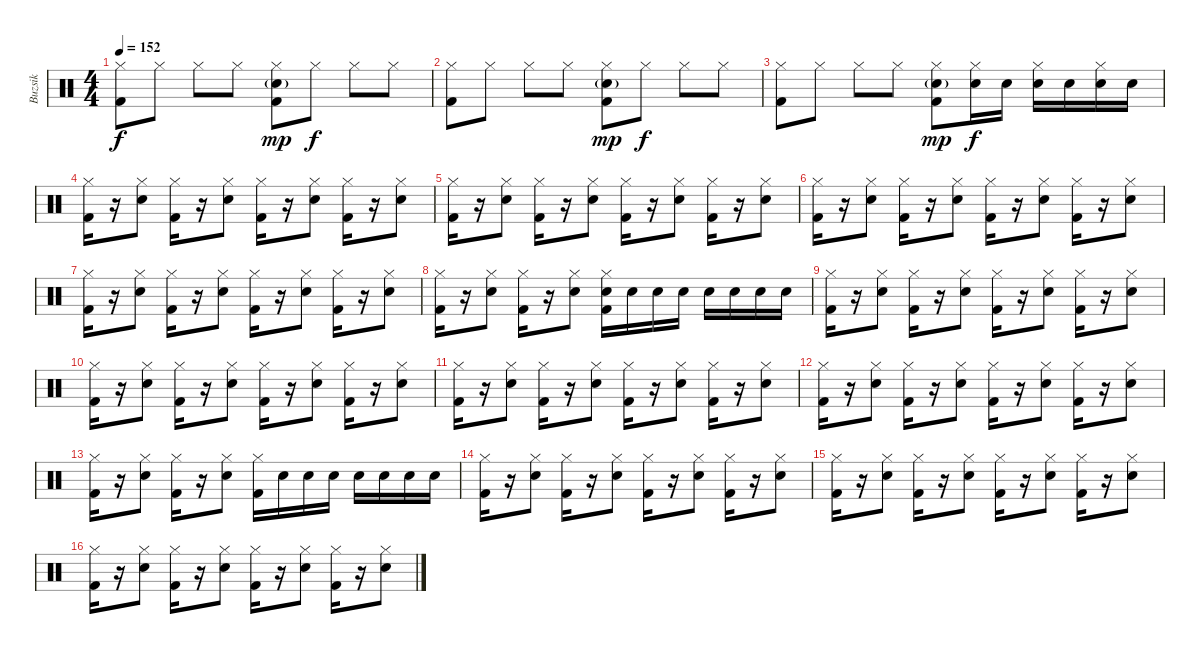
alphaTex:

\track ("Buzsik" "Buzsik") {instrument percussion}
\staff {score}
\articulation defaults
\ts (4 4)
\tempo 152
\clef neutral
\ks c
("Hi-Hat (closed)" "Kick (hit) 2").8{dy f} "Hi-Hat (closed)".8 "Hi-Hat (closed)".8 "Hi-Hat (closed)".8 ("Hi-Hat (closed)" "Snare (hit) 2"{g} "Kick (hit) 2").8{dy mp} "Hi-Hat (closed)".8{dy f} "Hi-Hat (closed)".8 "Hi-Hat (closed)".8 |
("Hi-Hat (closed)" "Kick (hit) 2").8 "Hi-Hat (closed)".8 "Hi-Hat (closed)".8 "Hi-Hat (closed)".8 ("Hi-Hat (closed)" "Snare (hit) 2"{g} "Kick (hit) 2").8{dy mp} "Hi-Hat (closed)".8{dy f} "Hi-Hat (closed)".8 "Hi-Hat (closed)".8 |
("Hi-Hat (closed)" "Kick (hit) 2").8 "Hi-Hat (closed)".8 "Hi-Hat (closed)".8 "Hi-Hat (closed)".8 ("Hi-Hat (closed)" "Snare (hit) 2"{g} "Kick (hit) 2").8{dy mp} ("Hi-Hat (closed)" "Electric Snare (hit)").16{dy f} "Electric Snare (hit)".16 ("Hi-Hat (closed)" "Electric Snare (hit)").16 "Electric Snare (hit)".16 ("Hi-Hat (closed)" "Electric Snare (hit)").16 "Electric Snare (hit)".16 |
("Hi-Hat (closed)" "Kick (hit) 2").16 r.16 ("Hi-Hat (closed)" "Electric Snare (hit)").8 ("Hi-Hat (closed)" "Kick (hit) 2").16 r.16 ("Hi-Hat (closed)" "Electric Snare (hit)").8 ("Hi-Hat (closed)" "Kick (hit) 2").16 r.16 ("Hi-Hat (closed)" "Electric Snare (hit)").8 ("Hi-Hat (closed)" "Kick (hit) 2").16 r.16 ("Hi-Hat (closed)" "Electric Snare (hit)").8 |
("Hi-Hat (closed)" "Kick (hit) 2").16 r.16 ("Hi-Hat (closed)" "Electric Snare (hit)").8 ("Hi-Hat (closed)" "Kick (hit) 2").16 r.16 ("Hi-Hat (closed)" "Electric Snare (hit)").8 ("Hi-Hat (closed)" "Kick (hit) 2").16 r.16 ("Hi-Hat (closed)" "Electric Snare (hit)").8 ("Hi-Hat (closed)" "Kick (hit) 2").16 r.16 ("Hi-Hat (closed)" "Electric Snare (hit)").8 |
("Hi-Hat (closed)" "Kick (hit) 2").16 r.16 ("Hi-Hat (closed)" "Electric Snare (hit)").8 ("Hi-Hat (closed)" "Kick (hit) 2").16 r.16 ("Hi-Hat (closed)" "Electric Snare (hit)").8 ("Hi-Hat (closed)" "Kick (hit) 2").16 r.16 ("Hi-Hat (closed)" "Electric Snare (hit)").8 ("Hi-Hat (closed)" "Kick (hit) 2").16 r.16 ("Hi-Hat (closed)" "Electric Snare (hit)").8 |
("Hi-Hat (closed)" "Kick (hit) 2").16 r.16 ("Hi-Hat (closed)" "Electric Snare (hit)").8 ("Hi-Hat (closed)" "Kick (hit) 2").16 r.16 ("Hi-Hat (closed)" "Electric Snare (hit)").8 ("Hi-Hat (closed)" "Kick (hit) 2").16 r.16 ("Hi-Hat (closed)" "Electric Snare (hit)").8 ("Hi-Hat (closed)" "Kick (hit) 2").16 r.16 ("Hi-Hat (closed)" "Electric Snare (hit)").8 |
("Hi-Hat (closed)" "Kick (hit) 2").16 r.16 ("Hi-Hat (closed)" "Electric Snare (hit)").8 ("Hi-Hat (closed)" "Kick (hit) 2").16 r.16 ("Hi-Hat (closed)" "Electric Snare (hit)").8 ("Hi-Hat (closed)" "Kick (hit) 2" "Electric Snare (hit)").16 "Electric Snare (hit)".16 "Electric Snare (hit)".16 "Electric Snare (hit)".16 "Electric Snare (hit)".16 "Electric Snare (hit)".16 "Electric Snare (hit)".16 "Electric Snare (hit)".16 |
("Hi-Hat (closed)" "Kick (hit) 2").16 r.16 ("Hi-Hat (closed)" "Electric Snare (hit)").8 ("Hi-Hat (closed)" "Kick (hit) 2").16 r.16 ("Hi-Hat (closed)" "Electric Snare (hit)").8 ("Hi-Hat (closed)" "Kick (hit) 2").16 r.16 ("Hi-Hat (closed)" "Electric Snare (hit)").8 ("Hi-Hat (closed)" "Kick (hit) 2").16 r.16 ("Hi-Hat (closed)" "Electric Snare (hit)").8 |
("Hi-Hat (closed)" "Kick (hit) 2").16 r.16 ("Hi-Hat (closed)" "Electric Snare (hit)").8 ("Hi-Hat (closed)" "Kick (hit) 2").16 r.16 ("Hi-Hat (closed)" "Electric Snare (hit)").8 ("Hi-Hat (closed)" "Kick (hit) 2").16 r.16 ("Hi-Hat (closed)" "Electric Snare (hit)").8 ("Hi-Hat (closed)" "Kick (hit) 2").16 r.16 ("Hi-Hat (closed)" "Electric Snare (hit)").8 |
("Hi-Hat (closed)" "Kick (hit) 2").16 r.16 ("Hi-Hat (closed)" "Electric Snare (hit)").8 ("Hi-Hat (closed)" "Kick (hit) 2").16 r.16 ("Hi-Hat (closed)" "Electric Snare (hit)").8 ("Hi-Hat (closed)" "Kick (hit) 2").16 r.16 ("Hi-Hat (closed)" "Electric Snare (hit)").8 ("Hi-Hat (closed)" "Kick (hit) 2").16 r.16 ("Hi-Hat (closed)" "Electric Snare (hit)").8 |
("Hi-Hat (closed)" "Kick (hit) 2").16 r.16 ("Hi-Hat (closed)" "Electric Snare (hit)").8 ("Hi-Hat (closed)" "Kick (hit) 2").16 r.16 ("Hi-Hat (closed)" "Electric Snare (hit)").8 ("Hi-Hat (closed)" "Kick (hit) 2").16 r.16 ("Hi-Hat (closed)" "Electric Snare (hit)").8 ("Hi-Hat (closed)" "Kick (hit) 2").16 r.16 ("Hi-Hat (closed)" "Electric Snare (hit)").8 |
("Hi-Hat (closed)" "Kick (hit) 2").16 r.16 ("Hi-Hat (closed)" "Electric Snare (hit)").8 ("Hi-Hat (closed)" "Kick (hit) 2").16 r.16 ("Hi-Hat (closed)" "Electric Snare (hit)").8 ("Hi-Hat (closed)" "Kick (hit) 2").16 "Electric Snare (hit)".16 "Electric Snare (hit)".16 "Electric Snare (hit)".16 "Electric Snare (hit)".16 "Electric Snare (hit)".16 "Electric Snare (hit)".16 "Electric Snare (hit)".16 |
("Hi-Hat (closed)" "Kick (hit) 2").16 r.16 ("Hi-Hat (closed)" "Electric Snare (hit)").8 ("Hi-Hat (closed)" "Kick (hit) 2").16 r.16 ("Hi-Hat (closed)" "Electric Snare (hit)").8 ("Hi-Hat (closed)" "Kick (hit) 2").16 r.16 ("Hi-Hat (closed)" "Electric Snare (hit)").8 ("Hi-Hat (closed)" "Kick (hit) 2").16 r.16 ("Hi-Hat (closed)" "Electric Snare (hit)").8 |
("Hi-Hat (closed)" "Kick (hit) 2").16 r.16 ("Hi-Hat (closed)" "Electric Snare (hit)").8 ("Hi-Hat (closed)" "Kick (hit) 2").16 r.16 ("Hi-Hat (closed)" "Electric Snare (hit)").8 ("Hi-Hat (closed)" "Kick (hit) 2").16 r.16 ("Hi-Hat (closed)" "Electric Snare (hit)").8 ("Hi-Hat (closed)" "Kick (hit) 2").16 r.16 ("Hi-Hat (closed)" "Electric Snare (hit)").8 |
("Hi-Hat (closed)" "Kick (hit) 2").16 r.16 ("Hi-Hat (closed)" "Electric Snare (hit)").8 ("Hi-Hat (closed)" "Kick (hit) 2").16 r.16 ("Hi-Hat (closed)" "Electric Snare (hit)").8 ("Hi-Hat (closed)" "Kick (hit) 2").16 r.16 ("Hi-Hat (closed)" "Electric Snare (hit)").8 ("Hi-Hat (closed)" "Kick (hit) 2").16 r.16 ("Hi-Hat (closed)" "Electric Snare (hit)").8
